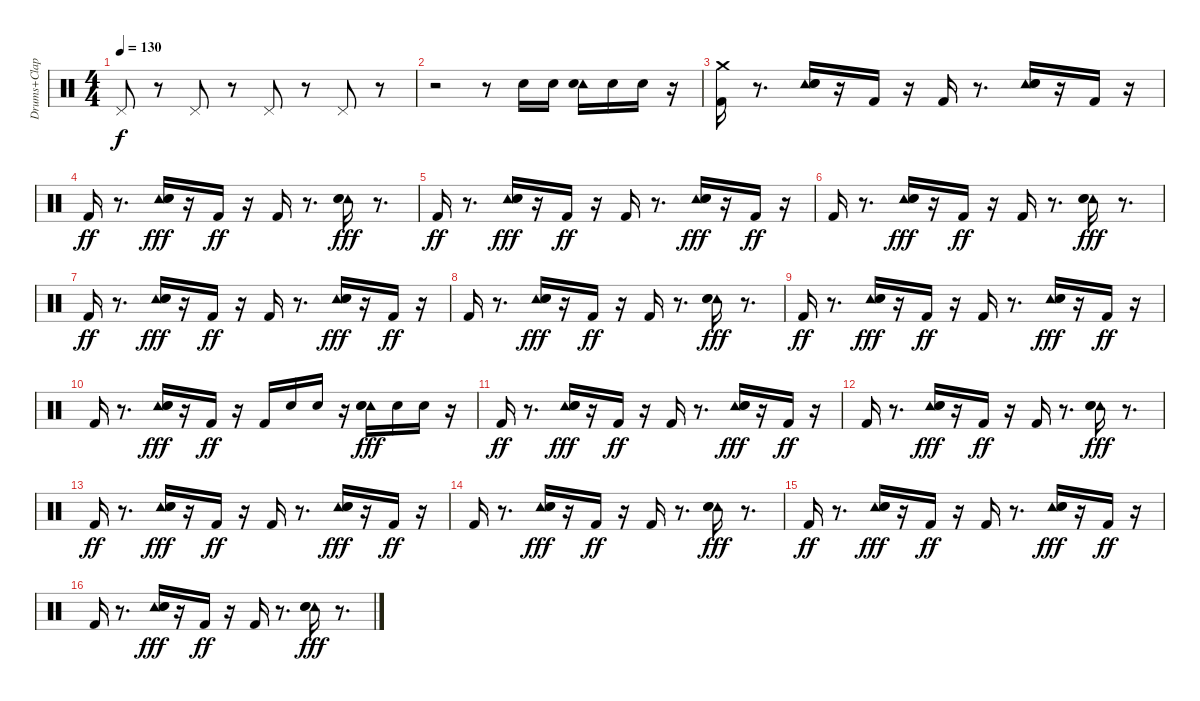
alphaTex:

\track ("Drums+Clap" "Drums+Clap") {instrument percussion}
\staff {score}
\articulation defaults
\ts (4 4)
\tempo 130
\clef neutral
\ks c "Pedal Hi-Hat (hit)".8{dy f}
r.8 "Pedal Hi-Hat (hit)".8 r.8 "Pedal Hi-Hat (hit)".8 r.8 "Pedal Hi-Hat (hit)".8 r.8 |
r.2 r.8 "Electric Snare (hit)".16 "Electric Snare (hit)".16 ("Tambourine (hit)" "Electric Snare (hit)").16 "Electric Snare (hit)".16 "Electric Snare (hit)".16 r.16 |
("Crash medium (hit)" "Kick (hit) 2").16 r.8{d} ("Tambourine (hit)" "Electric Snare (hit)" "Hand Clap (hit)").16 r.16 "Kick (hit) 2".16 r.16 "Kick (hit) 2".16 r.8{d} ("Tambourine (hit)" "Electric Snare (hit)" "Hand Clap (hit)").16 r.16 "Kick (hit) 2".16 r.16 |
"Kick (hit) 2".16{dy ff} r.8{d} ("Tambourine (hit)" "Electric Snare (hit)" "Hand Clap (hit)").16{dy fff} r.16 "Kick (hit) 2".16{dy ff} r.16 "Kick (hit) 2".16 r.8{d} ("Tambourine (hit)" "Electric Snare (hit)" "Hand Clap (hit)").16{dy fff} r.8{d} |
"Kick (hit) 2".16{dy ff} r.8{d} ("Tambourine (hit)" "Electric Snare (hit)" "Hand Clap (hit)").16{dy fff} r.16 "Kick (hit) 2".16{dy ff} r.16 "Kick (hit) 2".16 r.8{d} ("Tambourine (hit)" "Electric Snare (hit)" "Hand Clap (hit)").16{dy fff} r.16 "Kick (hit) 2".16{dy ff} r.16 |
"Kick (hit) 2".16 r.8{d} ("Tambourine (hit)" "Electric Snare (hit)" "Hand Clap (hit)").16{dy fff} r.16 "Kick (hit) 2".16{dy ff} r.16 "Kick (hit) 2".16 r.8{d} ("Tambourine (hit)" "Electric Snare (hit)" "Hand Clap (hit)").16{dy fff} r.8{d} |
"Kick (hit) 2".16{dy ff} r.8{d} ("Tambourine (hit)" "Electric Snare (hit)" "Hand Clap (hit)").16{dy fff} r.16 "Kick (hit) 2".16{dy ff} r.16 "Kick (hit) 2".16 r.8{d} ("Tambourine (hit)" "Electric Snare (hit)" "Hand Clap (hit)").16{dy fff} r.16 "Kick (hit) 2".16{dy ff} r.16 |
"Kick (hit) 2".16 r.8{d} ("Tambourine (hit)" "Electric Snare (hit)" "Hand Clap (hit)").16{dy fff} r.16 "Kick (hit) 2".16{dy ff} r.16 "Kick (hit) 2".16 r.8{d} ("Tambourine (hit)" "Electric Snare (hit)" "Hand Clap (hit)").16{dy fff} r.8{d} |
"Kick (hit) 2".16{dy ff} r.8{d} ("Tambourine (hit)" "Electric Snare (hit)" "Hand Clap (hit)").16{dy fff} r.16 "Kick (hit) 2".16{dy ff} r.16 "Kick (hit) 2".16 r.8{d} ("Tambourine (hit)" "Electric Snare (hit)" "Hand Clap (hit)").16{dy fff} r.16 "Kick (hit) 2".16{dy ff} r.16 |
"Kick (hit) 2".16 r.8{d} ("Tambourine (hit)" "Electric Snare (hit)" "Hand Clap (hit)").16{dy fff} r.16 "Kick (hit) 2".16{dy ff} r.16 "Kick (hit) 2".16 "Electric Snare (hit)".16 "Electric Snare (hit)".16 r.16 ("Tambourine (hit)" "Electric Snare (hit)" "Hand Clap (hit)").16{dy fff} "Electric Snare (hit)".16 "Electric Snare (hit)".16 r.16 |
"Kick (hit) 2".16{dy ff} r.8{d} ("Tambourine (hit)" "Electric Snare (hit)" "Hand Clap (hit)").16{dy fff} r.16 "Kick (hit) 2".16{dy ff} r.16 "Kick (hit) 2".16 r.8{d} ("Tambourine (hit)" "Electric Snare (hit)" "Hand Clap (hit)").16{dy fff} r.16 "Kick (hit) 2".16{dy ff} r.16 |
"Kick (hit) 2".16 r.8{d} ("Tambourine (hit)" "Electric Snare (hit)" "Hand Clap (hit)").16{dy fff} r.16 "Kick (hit) 2".16{dy ff} r.16 "Kick (hit) 2".16 r.8{d} ("Tambourine (hit)" "Electric Snare (hit)" "Hand Clap (hit)").16{dy fff} r.8{d} |
"Kick (hit) 2".16{dy ff} r.8{d} ("Tambourine (hit)" "Electric Snare (hit)" "Hand Clap (hit)").16{dy fff} r.16 "Kick (hit) 2".16{dy ff} r.16 "Kick (hit) 2".16 r.8{d} ("Tambourine (hit)" "Electric Snare (hit)" "Hand Clap (hit)").16{dy fff} r.16 "Kick (hit) 2".16{dy ff} r.16 |
"Kick (hit) 2".16 r.8{d} ("Tambourine (hit)" "Electric Snare (hit)" "Hand Clap (hit)").16{dy fff} r.16 "Kick (hit) 2".16{dy ff} r.16 "Kick (hit) 2".16 r.8{d} ("Tambourine (hit)" "Electric Snare (hit)" "Hand Clap (hit)").16{dy fff} r.8{d} |
"Kick (hit) 2".16{dy ff} r.8{d} ("Tambourine (hit)" "Electric Snare (hit)" "Hand Clap (hit)").16{dy fff} r.16 "Kick (hit) 2".16{dy ff} r.16 "Kick (hit) 2".16 r.8{d} ("Tambourine (hit)" "Electric Snare (hit)" "Hand Clap (hit)").16{dy fff} r.16 "Kick (hit) 2".16{dy ff} r.16 |
"Kick (hit) 2".16 r.8{d} ("Tambourine (hit)" "Electric Snare (hit)" "Hand Clap (hit)").16{dy fff} r.16 "Kick (hit) 2".16{dy ff} r.16 "Kick (hit) 2".16 r.8{d} ("Tambourine (hit)" "Electric Snare (hit)" "Hand Clap (hit)").16{dy fff} r.8{d}
